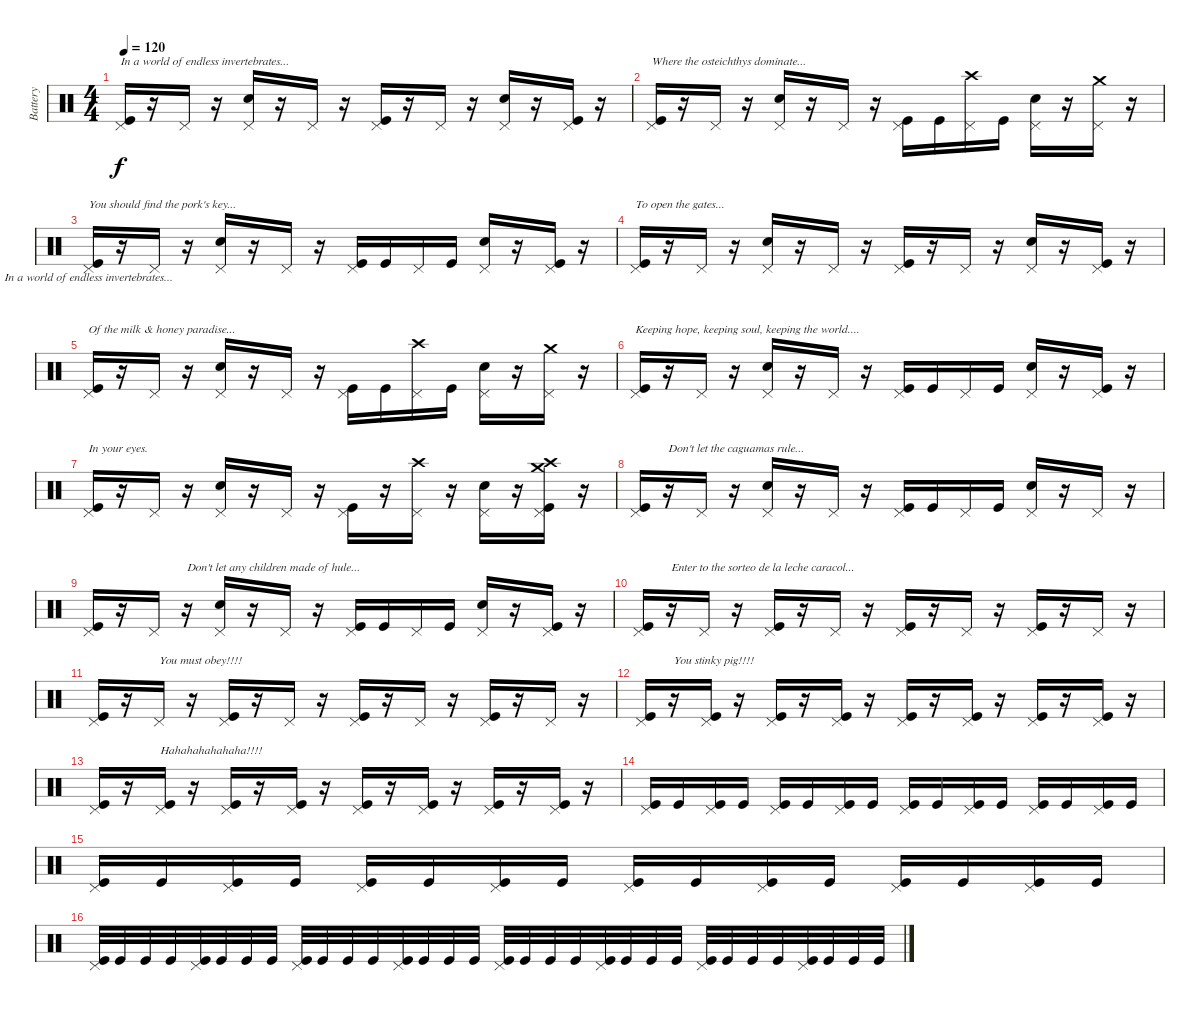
\track ("Battery" "Battery") {instrument percussion}
\staff {score}
\articulation defaults
\ts (4 4)
\tempo 120
\clef neutral
\ks c
("Pedal Hi-Hat (hit)" "Kick (hit)").16{txt "In a world of endless invertebrates..." dy f} r.16 "Pedal Hi-Hat (hit)".16 r.16 ("Pedal Hi-Hat (hit)" "Snare (hit) 2").16 r.16 "Pedal Hi-Hat (hit)".16 r.16 ("Pedal Hi-Hat (hit)" "Kick (hit)").16 r.16 "Pedal Hi-Hat (hit)".16 r.16 ("Pedal Hi-Hat (hit)" "Snare (hit) 2").16 r.16 ("Pedal Hi-Hat (hit)" "Kick (hit)").16 r.16 |
("Pedal Hi-Hat (hit)" "Kick (hit)").16{txt "Where the osteichthys dominate..."} r.16 "Pedal Hi-Hat (hit)".16 r.16 ("Pedal Hi-Hat (hit)" "Snare (hit) 2").16 r.16 "Pedal Hi-Hat (hit)".16 r.16 ("Pedal Hi-Hat (hit)" "Kick (hit)").16 "Kick (hit)".16 ("Pedal Hi-Hat (hit)" "Crash high (hit)").16 "Kick (hit)".16 ("Pedal Hi-Hat (hit)" "Snare (hit) 2").16 r.16 ("Pedal Hi-Hat (hit)" "Crash medium (hit)").16 r.16 |
("Pedal Hi-Hat (hit)" "Kick (hit)").16{txt "You should find the pork's key..." lyrics (0 "In a world of endless invertebrates...") lyrics (1 "") lyrics (2 "") lyrics (3 "") lyrics (4 "")} r.16 "Pedal Hi-Hat (hit)".16 r.16 ("Pedal Hi-Hat (hit)" "Snare (hit) 2").16 r.16 "Pedal Hi-Hat (hit)".16 r.16 ("Pedal Hi-Hat (hit)" "Kick (hit)").16 "Kick (hit)".16 "Pedal Hi-Hat (hit)".16 "Kick (hit)".16 ("Pedal Hi-Hat (hit)" "Snare (hit) 2").16 r.16 ("Pedal Hi-Hat (hit)" "Kick (hit)").16 r.16 |
("Pedal Hi-Hat (hit)" "Kick (hit)").16{txt "To open the gates..."} r.16 "Pedal Hi-Hat (hit)".16 r.16 ("Pedal Hi-Hat (hit)" "Snare (hit) 2").16 r.16 "Pedal Hi-Hat (hit)".16 r.16 ("Pedal Hi-Hat (hit)" "Kick (hit)").16 r.16 "Pedal Hi-Hat (hit)".16 r.16 ("Pedal Hi-Hat (hit)" "Snare (hit) 2").16 r.16 ("Pedal Hi-Hat (hit)" "Kick (hit)").16 r.16 |
("Pedal Hi-Hat (hit)" "Kick (hit)").16{txt "Of the milk & honey paradise..."} r.16 "Pedal Hi-Hat (hit)".16 r.16 ("Pedal Hi-Hat (hit)" "Snare (hit) 2").16 r.16 "Pedal Hi-Hat (hit)".16 r.16 ("Pedal Hi-Hat (hit)" "Kick (hit)").16 "Kick (hit)".16 ("Pedal Hi-Hat (hit)" "Crash high (hit)").16 "Kick (hit)".16 ("Pedal Hi-Hat (hit)" "Snare (hit) 2").16 r.16 ("Pedal Hi-Hat (hit)" "Crash medium (hit)").16 r.16 |
("Pedal Hi-Hat (hit)" "Kick (hit)").16{txt "Keeping hope, keeping soul, keeping the world...."} r.16 "Pedal Hi-Hat (hit)".16 r.16 ("Pedal Hi-Hat (hit)" "Snare (hit) 2").16 r.16 "Pedal Hi-Hat (hit)".16 r.16 ("Pedal Hi-Hat (hit)" "Kick (hit)").16 "Kick (hit)".16 "Pedal Hi-Hat (hit)".16 "Kick (hit)".16 ("Pedal Hi-Hat (hit)" "Snare (hit) 2").16 r.16 ("Pedal Hi-Hat (hit)" "Kick (hit)").16 r.16 |
("Pedal Hi-Hat (hit)" "Kick (hit)").16{txt "In your eyes."} r.16 "Pedal Hi-Hat (hit)".16 r.16 ("Pedal Hi-Hat (hit)" "Snare (hit) 2").16 r.16 "Pedal Hi-Hat (hit)".16 r.16 ("Pedal Hi-Hat (hit)" "Kick (hit)").16 r.16 ("Pedal Hi-Hat (hit)" "Crash high (hit)").16 r.16 ("Pedal Hi-Hat (hit)" "Snare (hit) 2").16 r.16 ("Pedal Hi-Hat (hit)" "Kick (hit)" "Crash high (hit)" "Crash medium (hit)").16 r.16 |
("Pedal Hi-Hat (hit)" "Kick (hit)").16 r.16{txt "Don't let the caguamas rule..."} "Pedal Hi-Hat (hit)".16 r.16 ("Pedal Hi-Hat (hit)" "Snare (hit) 2").16 r.16 "Pedal Hi-Hat (hit)".16 r.16 ("Pedal Hi-Hat (hit)" "Kick (hit)").16 "Kick (hit)".16 "Pedal Hi-Hat (hit)".16 "Kick (hit)".16 ("Pedal Hi-Hat (hit)" "Snare (hit) 2").16 r.16 "Pedal Hi-Hat (hit)".16 r.16 |
("Pedal Hi-Hat (hit)" "Kick (hit)").16 r.16 "Pedal Hi-Hat (hit)".16 r.16{txt "Don't let any children made of hule..."} ("Pedal Hi-Hat (hit)" "Snare (hit) 2").16 r.16 "Pedal Hi-Hat (hit)".16 r.16 ("Pedal Hi-Hat (hit)" "Kick (hit)").16 "Kick (hit)".16 "Pedal Hi-Hat (hit)".16 "Kick (hit)".16 ("Pedal Hi-Hat (hit)" "Snare (hit) 2").16 r.16 ("Pedal Hi-Hat (hit)" "Kick (hit)").16 r.16 |
("Pedal Hi-Hat (hit)" "Kick (hit)").16 r.16{txt "Enter to the sorteo de la leche caracol..."} "Pedal Hi-Hat (hit)".16 r.16 ("Pedal Hi-Hat (hit)" "Kick (hit)").16 r.16 "Pedal Hi-Hat (hit)".16 r.16 ("Pedal Hi-Hat (hit)" "Kick (hit)").16 r.16 "Pedal Hi-Hat (hit)".16 r.16 ("Pedal Hi-Hat (hit)" "Kick (hit)").16 r.16 "Pedal Hi-Hat (hit)".16 r.16 |
("Pedal Hi-Hat (hit)" "Kick (hit)").16 r.16 "Pedal Hi-Hat (hit)".16{txt "You must obey!!!!"} r.16 ("Pedal Hi-Hat (hit)" "Kick (hit)").16 r.16 "Pedal Hi-Hat (hit)".16 r.16 ("Pedal Hi-Hat (hit)" "Kick (hit)").16 r.16 "Pedal Hi-Hat (hit)".16 r.16 ("Pedal Hi-Hat (hit)" "Kick (hit)").16 r.16 "Pedal Hi-Hat (hit)".16 r.16 |
("Pedal Hi-Hat (hit)" "Kick (hit)").16 r.16{txt "You stinky pig!!!!"} ("Pedal Hi-Hat (hit)" "Kick (hit)").16 r.16 ("Pedal Hi-Hat (hit)" "Kick (hit)").16 r.16 ("Pedal Hi-Hat (hit)" "Kick (hit)").16 r.16 ("Pedal Hi-Hat (hit)" "Kick (hit)").16 r.16 ("Pedal Hi-Hat (hit)" "Kick (hit)").16 r.16 ("Pedal Hi-Hat (hit)" "Kick (hit)").16 r.16 ("Pedal Hi-Hat (hit)" "Kick (hit)").16 r.16 |
("Pedal Hi-Hat (hit)" "Kick (hit)").16 r.16 ("Pedal Hi-Hat (hit)" "Kick (hit)").16{txt "Hahahahahahaha!!!!"} r.16 ("Pedal Hi-Hat (hit)" "Kick (hit)").16 r.16 ("Pedal Hi-Hat (hit)" "Kick (hit)").16 r.16 ("Pedal Hi-Hat (hit)" "Kick (hit)").16 r.16 ("Pedal Hi-Hat (hit)" "Kick (hit)").16 r.16 ("Pedal Hi-Hat (hit)" "Kick (hit)").16 r.16 ("Pedal Hi-Hat (hit)" "Kick (hit)").16 r.16 |
("Pedal Hi-Hat (hit)" "Kick (hit)").16 "Kick (hit)".16 ("Pedal Hi-Hat (hit)" "Kick (hit)").16 "Kick (hit)".16 ("Pedal Hi-Hat (hit)" "Kick (hit)").16 "Kick (hit)".16 ("Pedal Hi-Hat (hit)" "Kick (hit)").16 "Kick (hit)".16 ("Pedal Hi-Hat (hit)" "Kick (hit)").16 "Kick (hit)".16 ("Pedal Hi-Hat (hit)" "Kick (hit)").16 "Kick (hit)".16 ("Pedal Hi-Hat (hit)" "Kick (hit)").16 "Kick (hit)".16 ("Pedal Hi-Hat (hit)" "Kick (hit)").16 "Kick (hit)".16 |
("Pedal Hi-Hat (hit)" "Kick (hit)").16 "Kick (hit)".16 ("Pedal Hi-Hat (hit)" "Kick (hit)").16 "Kick (hit)".16 ("Pedal Hi-Hat (hit)" "Kick (hit)").16 "Kick (hit)".16 ("Pedal Hi-Hat (hit)" "Kick (hit)").16 "Kick (hit)".16 ("Pedal Hi-Hat (hit)" "Kick (hit)").16 "Kick (hit)".16 ("Pedal Hi-Hat (hit)" "Kick (hit)").16 "Kick (hit)".16 ("Pedal Hi-Hat (hit)" "Kick (hit)").16 "Kick (hit)".16 ("Pedal Hi-Hat (hit)" "Kick (hit)").16 "Kick (hit)".16 |
("Pedal Hi-Hat (hit)" "Kick (hit)").32 "Kick (hit)".32 "Kick (hit)".32 "Kick (hit)".32 ("Pedal Hi-Hat (hit)" "Kick (hit)").32 "Kick (hit)".32 "Kick (hit)".32 "Kick (hit)".32 ("Pedal Hi-Hat (hit)" "Kick (hit)").32 "Kick (hit)".32 "Kick (hit)".32 "Kick (hit)".32 ("Pedal Hi-Hat (hit)" "Kick (hit)").32 "Kick (hit)".32 "Kick (hit)".32 "Kick (hit)".32 ("Pedal Hi-Hat (hit)" "Kick (hit)").32 "Kick (hit)".32 "Kick (hit)".32 "Kick (hit)".32 ("Pedal Hi-Hat (hit)" "Kick (hit)").32 "Kick (hit)".32 "Kick (hit)".32 "Kick (hit)".32 ("Pedal Hi-Hat (hit)" "Kick (hit)").32 "Kick (hit)".32 "Kick (hit)".32 "Kick (hit)".32 ("Pedal Hi-Hat (hit)" "Kick (hit)").32 "Kick (hit)".32 "Kick (hit)".32 "Kick (hit)".32
